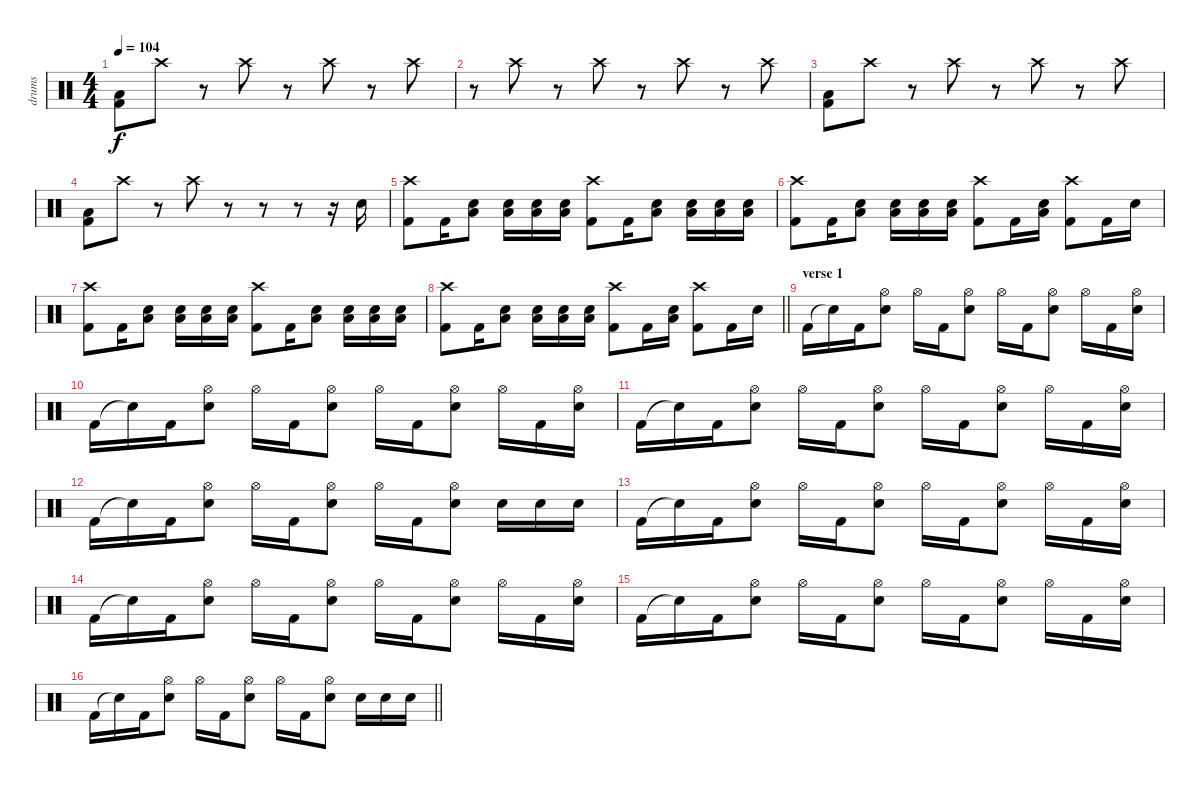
\track ("drums" "drums") {instrument percussion}
\staff {score}
\articulation defaults
\ts (4 4)
\tempo 104
\clef neutral
\ks c
("Low Floor Tom (hit)" "Kick (hit) 2").8{dy f} "Crash high (hit)".8 r.8 "Crash high (hit)".8 r.8 "Crash high (hit)".8 r.8 "Crash high (hit)".8 |
r.8 "Crash high (hit)".8 r.8 "Crash high (hit)".8 r.8 "Crash high (hit)".8 r.8 "Crash high (hit)".8 |
("Low Floor Tom (hit)" "Kick (hit) 2").8 "Crash high (hit)".8 r.8 "Crash high (hit)".8 r.8 "Crash high (hit)".8 r.8 "Crash high (hit)".8 |
("Low Floor Tom (hit)" "Kick (hit) 2").8 "Crash high (hit)".8 r.8 "Crash high (hit)".8 r.8 r.8 r.8 r.16 "Electric Snare (hit)".16 |
("Crash high (hit)" "Kick (hit) 2").8 "Kick (hit) 2".16 ("Low Floor Tom (hit)" "Electric Snare (hit)").8 ("Low Floor Tom (hit)" "Electric Snare (hit)").16 ("Low Floor Tom (hit)" "Electric Snare (hit)").16 ("Low Floor Tom (hit)" "Electric Snare (hit)").16 ("Crash high (hit)" "Kick (hit) 2").8 "Kick (hit) 2".16 ("Low Floor Tom (hit)" "Electric Snare (hit)").8 ("Low Floor Tom (hit)" "Electric Snare (hit)").16 ("Low Floor Tom (hit)" "Electric Snare (hit)").16 ("Low Floor Tom (hit)" "Electric Snare (hit)").16 |
("Crash high (hit)" "Kick (hit) 2").8 "Kick (hit) 2".16 ("Low Floor Tom (hit)" "Electric Snare (hit)").8 ("Low Floor Tom (hit)" "Electric Snare (hit)").16 ("Low Floor Tom (hit)" "Electric Snare (hit)").16 ("Low Floor Tom (hit)" "Electric Snare (hit)").16 ("Crash high (hit)" "Kick (hit) 2").8 "Kick (hit) 2".16 ("Low Floor Tom (hit)" "Electric Snare (hit)").16 ("Crash high (hit)" "Kick (hit) 2").8 "Kick (hit) 2".16 "Electric Snare (hit)".16 |
("Crash high (hit)" "Kick (hit) 2").8 "Kick (hit) 2".16 ("Low Floor Tom (hit)" "Electric Snare (hit)").8 ("Low Floor Tom (hit)" "Electric Snare (hit)").16 ("Low Floor Tom (hit)" "Electric Snare (hit)").16 ("Low Floor Tom (hit)" "Electric Snare (hit)").16 ("Crash high (hit)" "Kick (hit) 2").8 "Kick (hit) 2".16 ("Low Floor Tom (hit)" "Electric Snare (hit)").8 ("Low Floor Tom (hit)" "Electric Snare (hit)").16 ("Low Floor Tom (hit)" "Electric Snare (hit)").16 ("Low Floor Tom (hit)" "Electric Snare (hit)").16 |
\barLineRight lightlight
("Crash high (hit)" "Kick (hit) 2").8 "Kick (hit) 2".16 ("Low Floor Tom (hit)" "Electric Snare (hit)").8 ("Low Floor Tom (hit)" "Electric Snare (hit)").16 ("Low Floor Tom (hit)" "Electric Snare (hit)").16 ("Low Floor Tom (hit)" "Electric Snare (hit)").16 ("Crash high (hit)" "Kick (hit) 2").8 "Kick (hit) 2".16 ("Low Floor Tom (hit)" "Electric Snare (hit)").16 ("Crash high (hit)" "Kick (hit) 2").8 "Kick (hit) 2".16 "Electric Snare (hit)".16 |
\section ("" "verse 1")
"Kick (hit) 2".16 "Snare (hit)"{t}.16 "Kick (hit) 2".16 ("Hi-Hat (open)" "Electric Snare (hit)").8 "Hi-Hat (open)".16 "Kick (hit) 2".16 ("Hi-Hat (open)" "Electric Snare (hit)").8 "Hi-Hat (open)".16 "Kick (hit) 2".16 ("Hi-Hat (open)" "Electric Snare (hit)").8 "Hi-Hat (open)".16 "Kick (hit) 2".16 ("Hi-Hat (open)" "Electric Snare (hit)").16 |
"Kick (hit) 2".16 "Snare (hit)"{t}.16 "Kick (hit) 2".16 ("Hi-Hat (open)" "Electric Snare (hit)").8 "Hi-Hat (open)".16 "Kick (hit) 2".16 ("Hi-Hat (open)" "Electric Snare (hit)").8 "Hi-Hat (open)".16 "Kick (hit) 2".16 ("Hi-Hat (open)" "Electric Snare (hit)").8 "Hi-Hat (open)".16 "Kick (hit) 2".16 ("Hi-Hat (open)" "Electric Snare (hit)").16 |
"Kick (hit) 2".16 "Snare (hit)"{t}.16 "Kick (hit) 2".16 ("Hi-Hat (open)" "Electric Snare (hit)").8 "Hi-Hat (open)".16 "Kick (hit) 2".16 ("Hi-Hat (open)" "Electric Snare (hit)").8 "Hi-Hat (open)".16 "Kick (hit) 2".16 ("Hi-Hat (open)" "Electric Snare (hit)").8 "Hi-Hat (open)".16 "Kick (hit) 2".16 ("Hi-Hat (open)" "Electric Snare (hit)").16 |
"Kick (hit) 2".16 "Snare (hit)"{t}.16 "Kick (hit) 2".16 ("Hi-Hat (open)" "Electric Snare (hit)").8 "Hi-Hat (open)".16 "Kick (hit) 2".16 ("Hi-Hat (open)" "Electric Snare (hit)").8 "Hi-Hat (open)".16 "Kick (hit) 2".16 ("Hi-Hat (open)" "Electric Snare (hit)").8 "Electric Snare (hit)".16 "Electric Snare (hit)".16 "Electric Snare (hit)".16 |
"Kick (hit) 2".16 "Snare (hit)"{t}.16 "Kick (hit) 2".16 ("Hi-Hat (open)" "Electric Snare (hit)").8 "Hi-Hat (open)".16 "Kick (hit) 2".16 ("Hi-Hat (open)" "Electric Snare (hit)").8 "Hi-Hat (open)".16 "Kick (hit) 2".16 ("Hi-Hat (open)" "Electric Snare (hit)").8 "Hi-Hat (open)".16 "Kick (hit) 2".16 ("Hi-Hat (open)" "Electric Snare (hit)").16 |
"Kick (hit) 2".16 "Snare (hit)"{t}.16 "Kick (hit) 2".16 ("Hi-Hat (open)" "Electric Snare (hit)").8 "Hi-Hat (open)".16 "Kick (hit) 2".16 ("Hi-Hat (open)" "Electric Snare (hit)").8 "Hi-Hat (open)".16 "Kick (hit) 2".16 ("Hi-Hat (open)" "Electric Snare (hit)").8 "Hi-Hat (open)".16 "Kick (hit) 2".16 ("Hi-Hat (open)" "Electric Snare (hit)").16 |
"Kick (hit) 2".16 "Snare (hit)"{t}.16 "Kick (hit) 2".16 ("Hi-Hat (open)" "Electric Snare (hit)").8 "Hi-Hat (open)".16 "Kick (hit) 2".16 ("Hi-Hat (open)" "Electric Snare (hit)").8 "Hi-Hat (open)".16 "Kick (hit) 2".16 ("Hi-Hat (open)" "Electric Snare (hit)").8 "Hi-Hat (open)".16 "Kick (hit) 2".16 ("Hi-Hat (open)" "Electric Snare (hit)").16 |
\barLineRight lightlight "Kick (hit) 2".16 "Snare (hit)"{t}.16 "Kick (hit) 2".16
("Hi-Hat (open)" "Electric Snare (hit)").8 "Hi-Hat (open)".16 "Kick (hit) 2".16 ("Hi-Hat (open)" "Electric Snare (hit)").8 "Hi-Hat (open)".16 "Kick (hit) 2".16 ("Hi-Hat (open)" "Electric Snare (hit)").8 "Electric Snare (hit)".16 "Electric Snare (hit)".16 "Electric Snare (hit)".16
